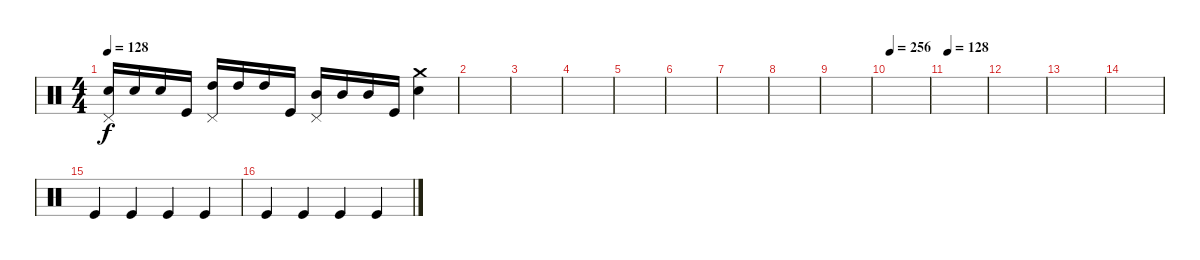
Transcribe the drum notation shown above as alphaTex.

\track "" {instrument percussion}
\staff {score}
\articulation defaults
\ts (4 4)
\tempo 128
\clef neutral
\ks c
("Electric Snare (hit)" "Pedal Hi-Hat (hit)").16{dy f} "Electric Snare (hit)".16 "Electric Snare (hit)".16 "Kick (hit)".16 ("High Tom (hit)" "Pedal Hi-Hat (hit)").16 "High Tom (hit)".16 "High Tom (hit)".16 "Kick (hit)".16 ("Mid Tom (hit)" "Pedal Hi-Hat (hit)").16 "Mid Tom (hit)".16 "Mid Tom (hit)".16 "Kick (hit)".16 ("Crash medium (hit)" "Electric Snare (hit)").4 |
|
|
|
|
|
|
|
|
\tempo 256
|
\tempo 128
|
|
|
|
"Kick (hit)".4 "Kick (hit)".4 "Kick (hit)".4 "Kick (hit)".4 |
"Kick (hit)".4 "Kick (hit)".4 "Kick (hit)".4 "Kick (hit)".4
